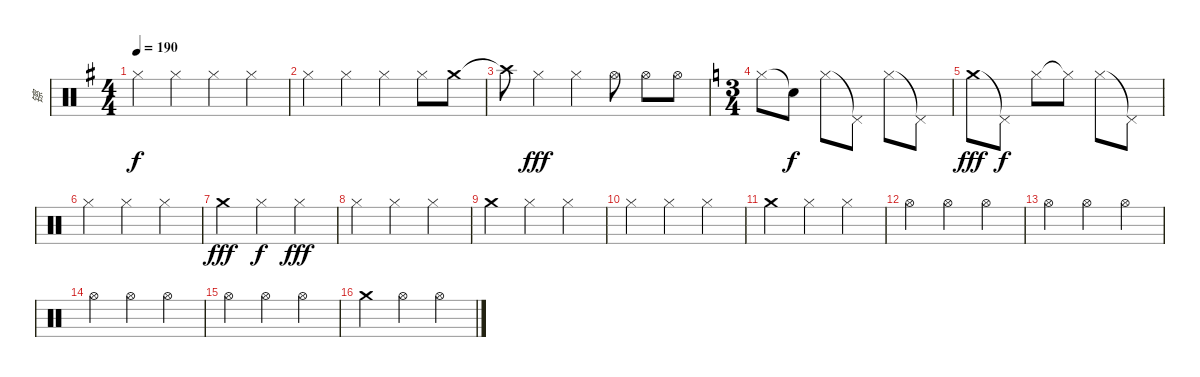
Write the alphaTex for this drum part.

\track ("镲" "镲") {instrument percussion}
\staff {score}
\articulation defaults
\ts (4 4)
\tempo 190
\clef neutral
\ks g "Hi-Hat (closed)".4{dy f} "Hi-Hat (closed)".4 "Hi-Hat (closed)".4 "Hi-Hat (closed)".4
|
"Hi-Hat (closed)".4 "Hi-Hat (closed)".4 "Hi-Hat (closed)".4 "Hi-Hat (closed)".8 "Crash medium (hit)".8 |
"Crash high (hit)"{t}.8 "Hi-Hat (closed)".4{dy fff} "Hi-Hat (closed)".4 "Hi-Hat (open)".8 "Hi-Hat (open)".8 "Hi-Hat (open)".8 |
\ts (3 4)
\ks c "Hi-Hat (closed)".8 "Snare (hit)"{t}.8{dy f} "Hi-Hat (closed)".8 "Pedal Hi-Hat (hit)"{t}.8 "Hi-Hat (closed)".8 "Pedal Hi-Hat (hit)"{t}.8
|
"Crash medium (hit)".8{dy fff} "Pedal Hi-Hat (hit)"{t}.8{dy f} "Hi-Hat (closed)".8 "Hi-Hat (closed)"{t}.8 "Hi-Hat (closed)".8 "Pedal Hi-Hat (hit)"{t}.8 |
"Hi-Hat (closed)".4 "Hi-Hat (closed)".4 "Hi-Hat (closed)".4 |
"Crash medium (hit)".4{dy fff} "Hi-Hat (closed)".4{dy f} "Hi-Hat (closed)".4{dy fff} |
"Hi-Hat (closed)".4 "Hi-Hat (closed)".4 "Hi-Hat (closed)".4 |
"Crash medium (hit)".4 "Hi-Hat (closed)".4 "Hi-Hat (closed)".4 |
"Hi-Hat (closed)".4 "Hi-Hat (closed)".4 "Hi-Hat (closed)".4 |
"Crash medium (hit)".4 "Hi-Hat (closed)".4 "Hi-Hat (closed)".4 |
"Hi-Hat (open)".4 "Hi-Hat (open)".4 "Hi-Hat (open)".4 |
"Hi-Hat (open)".4 "Hi-Hat (open)".4 "Hi-Hat (open)".4 |
"Hi-Hat (open)".4 "Hi-Hat (open)".4 "Hi-Hat (open)".4 |
"Hi-Hat (open)".4 "Hi-Hat (open)".4 "Hi-Hat (open)".4 |
"Crash medium (hit)".4 "Hi-Hat (open)".4 "Hi-Hat (open)".4
